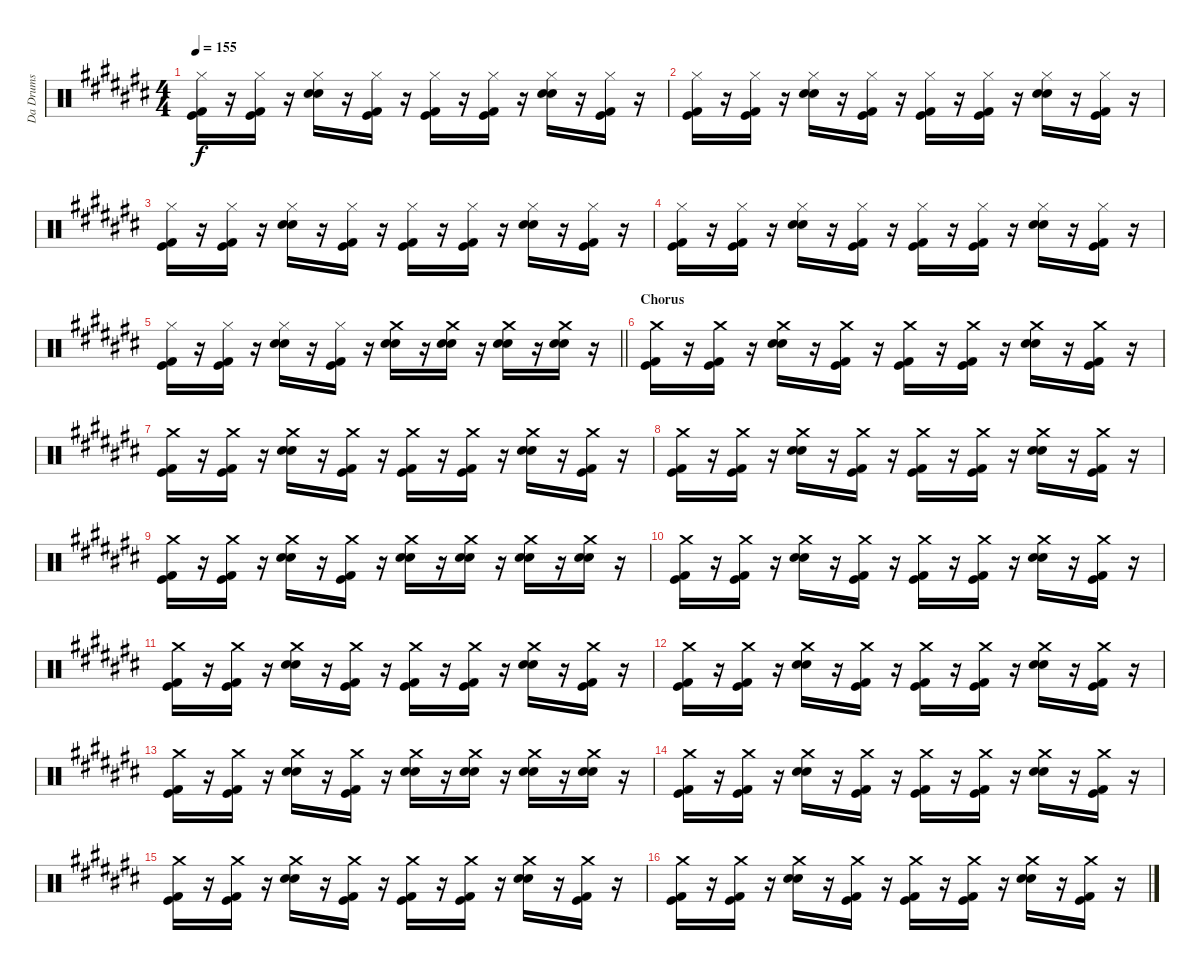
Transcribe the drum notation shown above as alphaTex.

\track ("Da Drums" "Da Drums") {instrument percussion}
\staff {score}
\articulation defaults
\ts (4 4)
\tempo 155
\clef neutral
\ks c#
("Hi-Hat (closed)" "Kick (hit)" "Kick (hit) 2").16{dy f} r.16 ("Hi-Hat (closed)" "Kick (hit)" "Kick (hit) 2").16 r.16 ("Hi-Hat (closed)" "Electric Snare (hit)" "Snare (hit) 2").16 r.16 ("Hi-Hat (closed)" "Kick (hit)" "Kick (hit) 2").16 r.16 ("Hi-Hat (closed)" "Kick (hit)" "Kick (hit) 2").16 r.16 ("Hi-Hat (closed)" "Kick (hit)" "Kick (hit) 2").16 r.16 ("Hi-Hat (closed)" "Electric Snare (hit)" "Snare (hit) 2").16 r.16 ("Hi-Hat (closed)" "Kick (hit)" "Kick (hit) 2").16 r.16 |
("Hi-Hat (closed)" "Kick (hit)" "Kick (hit) 2").16 r.16 ("Hi-Hat (closed)" "Kick (hit)" "Kick (hit) 2").16 r.16 ("Hi-Hat (closed)" "Electric Snare (hit)" "Snare (hit) 2").16 r.16 ("Hi-Hat (closed)" "Kick (hit)" "Kick (hit) 2").16 r.16 ("Hi-Hat (closed)" "Kick (hit)" "Kick (hit) 2").16 r.16 ("Hi-Hat (closed)" "Kick (hit)" "Kick (hit) 2").16 r.16 ("Hi-Hat (closed)" "Electric Snare (hit)" "Snare (hit) 2").16 r.16 ("Hi-Hat (closed)" "Kick (hit)" "Kick (hit) 2").16 r.16 |
("Hi-Hat (closed)" "Kick (hit)" "Kick (hit) 2").16 r.16 ("Hi-Hat (closed)" "Kick (hit)" "Kick (hit) 2").16 r.16 ("Hi-Hat (closed)" "Electric Snare (hit)" "Snare (hit) 2").16 r.16 ("Hi-Hat (closed)" "Kick (hit)" "Kick (hit) 2").16 r.16 ("Hi-Hat (closed)" "Kick (hit)" "Kick (hit) 2").16 r.16 ("Hi-Hat (closed)" "Kick (hit)" "Kick (hit) 2").16 r.16 ("Hi-Hat (closed)" "Electric Snare (hit)" "Snare (hit) 2").16 r.16 ("Hi-Hat (closed)" "Kick (hit)" "Kick (hit) 2").16 r.16 |
("Hi-Hat (closed)" "Kick (hit)" "Kick (hit) 2").16 r.16 ("Hi-Hat (closed)" "Kick (hit)" "Kick (hit) 2").16 r.16 ("Hi-Hat (closed)" "Electric Snare (hit)" "Snare (hit) 2").16 r.16 ("Hi-Hat (closed)" "Kick (hit)" "Kick (hit) 2").16 r.16 ("Hi-Hat (closed)" "Kick (hit)" "Kick (hit) 2").16 r.16 ("Hi-Hat (closed)" "Kick (hit)" "Kick (hit) 2").16 r.16 ("Hi-Hat (closed)" "Electric Snare (hit)" "Snare (hit) 2").16 r.16 ("Hi-Hat (closed)" "Kick (hit)" "Kick (hit) 2").16 r.16 |
\barLineRight lightlight
("Hi-Hat (closed)" "Kick (hit)" "Kick (hit) 2").16 r.16 ("Hi-Hat (closed)" "Kick (hit)" "Kick (hit) 2").16 r.16 ("Hi-Hat (closed)" "Electric Snare (hit)" "Snare (hit) 2").16 r.16 ("Hi-Hat (closed)" "Kick (hit)" "Kick (hit) 2").16 r.16 ("Crash medium (hit)" "Electric Snare (hit)" "Snare (hit) 2").16 r.16 ("Crash medium (hit)" "Electric Snare (hit)" "Snare (hit) 2").16 r.16 ("Crash medium (hit)" "Electric Snare (hit)" "Snare (hit) 2").16 r.16 ("Crash medium (hit)" "Electric Snare (hit)" "Snare (hit) 2").16 r.16 |
\section ("" "Chorus")
("Crash medium (hit)" "Kick (hit)" "Kick (hit) 2").16 r.16 ("Crash medium (hit)" "Kick (hit)" "Kick (hit) 2").16 r.16 ("Crash medium (hit)" "Electric Snare (hit)" "Snare (hit) 2").16 r.16 ("Crash medium (hit)" "Kick (hit)" "Kick (hit) 2").16 r.16 ("Crash medium (hit)" "Kick (hit)" "Kick (hit) 2").16 r.16 ("Crash medium (hit)" "Kick (hit)" "Kick (hit) 2").16 r.16 ("Crash medium (hit)" "Electric Snare (hit)" "Snare (hit) 2").16 r.16 ("Crash medium (hit)" "Kick (hit)" "Kick (hit) 2").16 r.16 |
("Crash medium (hit)" "Kick (hit)" "Kick (hit) 2").16 r.16 ("Crash medium (hit)" "Kick (hit)" "Kick (hit) 2").16 r.16 ("Crash medium (hit)" "Electric Snare (hit)" "Snare (hit) 2").16 r.16 ("Crash medium (hit)" "Kick (hit)" "Kick (hit) 2").16 r.16 ("Crash medium (hit)" "Kick (hit)" "Kick (hit) 2").16 r.16 ("Crash medium (hit)" "Kick (hit)" "Kick (hit) 2").16 r.16 ("Crash medium (hit)" "Electric Snare (hit)" "Snare (hit) 2").16 r.16 ("Crash medium (hit)" "Kick (hit)" "Kick (hit) 2").16 r.16 |
("Crash medium (hit)" "Kick (hit)" "Kick (hit) 2").16 r.16 ("Crash medium (hit)" "Kick (hit)" "Kick (hit) 2").16 r.16 ("Crash medium (hit)" "Electric Snare (hit)" "Snare (hit) 2").16 r.16 ("Crash medium (hit)" "Kick (hit)" "Kick (hit) 2").16 r.16 ("Crash medium (hit)" "Kick (hit)" "Kick (hit) 2").16 r.16 ("Crash medium (hit)" "Kick (hit)" "Kick (hit) 2").16 r.16 ("Crash medium (hit)" "Electric Snare (hit)" "Snare (hit) 2").16 r.16 ("Crash medium (hit)" "Kick (hit)" "Kick (hit) 2").16 r.16 |
("Crash medium (hit)" "Kick (hit)" "Kick (hit) 2").16 r.16 ("Crash medium (hit)" "Kick (hit)" "Kick (hit) 2").16 r.16 ("Crash medium (hit)" "Electric Snare (hit)" "Snare (hit) 2").16 r.16 ("Crash medium (hit)" "Kick (hit)" "Kick (hit) 2").16 r.16 ("Crash medium (hit)" "Electric Snare (hit)" "Snare (hit) 2").16 r.16 ("Crash medium (hit)" "Electric Snare (hit)" "Snare (hit) 2").16 r.16 ("Crash medium (hit)" "Electric Snare (hit)" "Snare (hit) 2").16 r.16 ("Crash medium (hit)" "Electric Snare (hit)" "Snare (hit) 2").16 r.16 |
("Crash medium (hit)" "Kick (hit)" "Kick (hit) 2").16 r.16 ("Crash medium (hit)" "Kick (hit)" "Kick (hit) 2").16 r.16 ("Crash medium (hit)" "Electric Snare (hit)" "Snare (hit) 2").16 r.16 ("Crash medium (hit)" "Kick (hit)" "Kick (hit) 2").16 r.16 ("Crash medium (hit)" "Kick (hit)" "Kick (hit) 2").16 r.16 ("Crash medium (hit)" "Kick (hit)" "Kick (hit) 2").16 r.16 ("Crash medium (hit)" "Electric Snare (hit)" "Snare (hit) 2").16 r.16 ("Crash medium (hit)" "Kick (hit)" "Kick (hit) 2").16 r.16 |
("Crash medium (hit)" "Kick (hit)" "Kick (hit) 2").16 r.16 ("Crash medium (hit)" "Kick (hit)" "Kick (hit) 2").16 r.16 ("Crash medium (hit)" "Electric Snare (hit)" "Snare (hit) 2").16 r.16 ("Crash medium (hit)" "Kick (hit)" "Kick (hit) 2").16 r.16 ("Crash medium (hit)" "Kick (hit)" "Kick (hit) 2").16 r.16 ("Crash medium (hit)" "Kick (hit)" "Kick (hit) 2").16 r.16 ("Crash medium (hit)" "Electric Snare (hit)" "Snare (hit) 2").16 r.16 ("Crash medium (hit)" "Kick (hit)" "Kick (hit) 2").16 r.16 |
("Crash medium (hit)" "Kick (hit)" "Kick (hit) 2").16 r.16 ("Crash medium (hit)" "Kick (hit)" "Kick (hit) 2").16 r.16 ("Crash medium (hit)" "Electric Snare (hit)" "Snare (hit) 2").16 r.16 ("Crash medium (hit)" "Kick (hit)" "Kick (hit) 2").16 r.16 ("Crash medium (hit)" "Kick (hit)" "Kick (hit) 2").16 r.16 ("Crash medium (hit)" "Kick (hit)" "Kick (hit) 2").16 r.16 ("Crash medium (hit)" "Electric Snare (hit)" "Snare (hit) 2").16 r.16 ("Crash medium (hit)" "Kick (hit)" "Kick (hit) 2").16 r.16 |
("Crash medium (hit)" "Kick (hit)" "Kick (hit) 2").16 r.16 ("Crash medium (hit)" "Kick (hit)" "Kick (hit) 2").16 r.16 ("Crash medium (hit)" "Electric Snare (hit)" "Snare (hit) 2").16 r.16 ("Crash medium (hit)" "Kick (hit)" "Kick (hit) 2").16 r.16 ("Crash medium (hit)" "Electric Snare (hit)" "Snare (hit) 2").16 r.16 ("Crash medium (hit)" "Electric Snare (hit)" "Snare (hit) 2").16 r.16 ("Crash medium (hit)" "Electric Snare (hit)" "Snare (hit) 2").16 r.16 ("Crash medium (hit)" "Electric Snare (hit)" "Snare (hit) 2").16 r.16 |
("Crash medium (hit)" "Kick (hit)" "Kick (hit) 2").16 r.16 ("Crash medium (hit)" "Kick (hit)" "Kick (hit) 2").16 r.16 ("Crash medium (hit)" "Electric Snare (hit)" "Snare (hit) 2").16 r.16 ("Crash medium (hit)" "Kick (hit)" "Kick (hit) 2").16 r.16 ("Crash medium (hit)" "Kick (hit)" "Kick (hit) 2").16 r.16 ("Crash medium (hit)" "Kick (hit)" "Kick (hit) 2").16 r.16 ("Crash medium (hit)" "Electric Snare (hit)" "Snare (hit) 2").16 r.16 ("Crash medium (hit)" "Kick (hit)" "Kick (hit) 2").16 r.16 |
("Crash medium (hit)" "Kick (hit)" "Kick (hit) 2").16 r.16 ("Crash medium (hit)" "Kick (hit)" "Kick (hit) 2").16 r.16 ("Crash medium (hit)" "Electric Snare (hit)" "Snare (hit) 2").16 r.16 ("Crash medium (hit)" "Kick (hit)" "Kick (hit) 2").16 r.16 ("Crash medium (hit)" "Kick (hit)" "Kick (hit) 2").16 r.16 ("Crash medium (hit)" "Kick (hit)" "Kick (hit) 2").16 r.16 ("Crash medium (hit)" "Electric Snare (hit)" "Snare (hit) 2").16 r.16 ("Crash medium (hit)" "Kick (hit)" "Kick (hit) 2").16 r.16 |
("Crash medium (hit)" "Kick (hit)" "Kick (hit) 2").16 r.16 ("Crash medium (hit)" "Kick (hit)" "Kick (hit) 2").16 r.16 ("Crash medium (hit)" "Electric Snare (hit)" "Snare (hit) 2").16 r.16 ("Crash medium (hit)" "Kick (hit)" "Kick (hit) 2").16 r.16 ("Crash medium (hit)" "Kick (hit)" "Kick (hit) 2").16 r.16 ("Crash medium (hit)" "Kick (hit)" "Kick (hit) 2").16 r.16 ("Crash medium (hit)" "Electric Snare (hit)" "Snare (hit) 2").16 r.16 ("Crash medium (hit)" "Kick (hit)" "Kick (hit) 2").16 r.16
